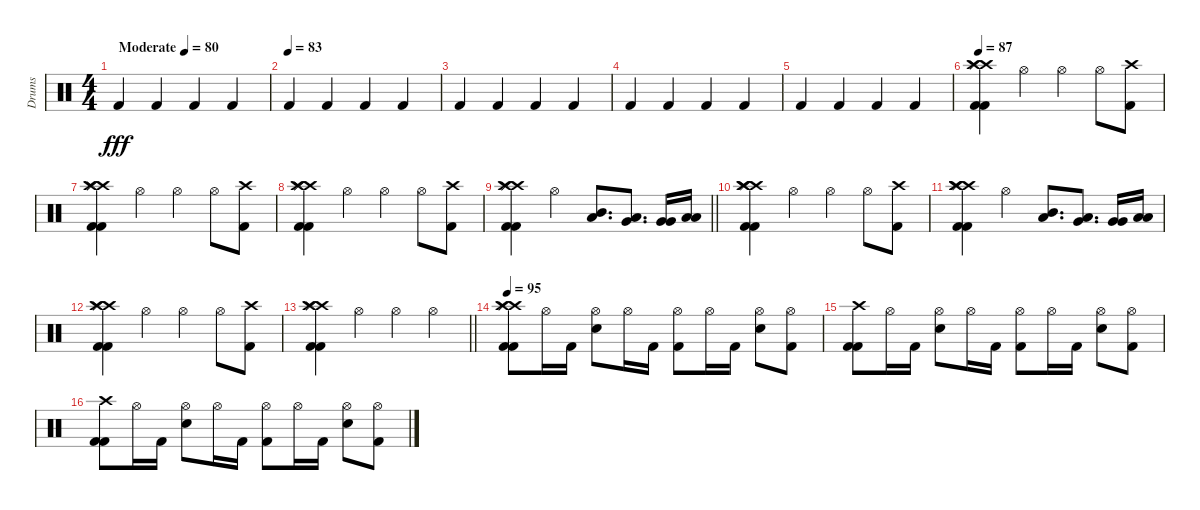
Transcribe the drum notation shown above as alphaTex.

\track ("Drums" "Drums") {instrument percussion}
\staff {score}
\articulation defaults
\ts (4 4)
\section ("" "")
\tempo (80 "Moderate")
\clef neutral
\ks c "Kick (hit) 2".4{dy fff} "Kick (hit) 2".4 "Kick (hit) 2".4 "Kick (hit) 2".4
|
\tempo (83)
"Kick (hit) 2".4 "Kick (hit) 2".4 "Kick (hit) 2".4 "Kick (hit) 2".4 |
"Kick (hit) 2".4 "Kick (hit) 2".4 "Kick (hit) 2".4 "Kick (hit) 2".4 |
"Kick (hit) 2".4 "Kick (hit) 2".4 "Kick (hit) 2".4 "Kick (hit) 2".4 |
"Kick (hit) 2".4 "Kick (hit) 2".4 "Kick (hit) 2".4 "Kick (hit) 2".4 |
\tempo 87
("Crash high (hit)" "Crash high (hit)" "Splash (hit)" "Splash (hit)" "Kick (hit) 2" "Kick (hit) 2").4 "Hi-Hat (open)".4 "Hi-Hat (open)".4 "Hi-Hat (open)".8 ("Crash high (hit)" "Kick (hit) 2").8 |
("Crash high (hit)" "Crash high (hit)" "Splash (hit)" "Splash (hit)" "Kick (hit) 2" "Kick (hit) 2").4 "Hi-Hat (open)".4 "Hi-Hat (open)".4 "Hi-Hat (open)".8 ("Crash high (hit)" "Kick (hit) 2").8 |
("Crash high (hit)" "Crash high (hit)" "Splash (hit)" "Splash (hit)" "Kick (hit) 2" "Kick (hit) 2").4 "Hi-Hat (open)".4 "Hi-Hat (open)".4 "Hi-Hat (open)".8 ("Crash high (hit)" "Kick (hit) 2").8 |
\barLineRight lightlight
("Crash high (hit)" "Crash high (hit)" "Splash (hit)" "Splash (hit)" "Kick (hit) 2" "Kick (hit) 2").4 "Hi-Hat (open)".4 ("Low Tom (hit)" "Mid Tom (hit)").8{d} ("Very Low Tom (hit)" "Low Tom (hit)").8{d} ("Very Low Tom (hit)" "Very Low Tom (hit)").16 ("Low Floor Tom (hit)" "Low Floor Tom (hit)").16 |
\section ("" "")
("Crash high (hit)" "Crash high (hit)" "Splash (hit)" "Crash high (hit)" "Kick (hit) 2" "Kick (hit) 2").4 "Hi-Hat (open)".4 "Hi-Hat (open)".4 "Hi-Hat (open)".8 ("Crash high (hit)" "Kick (hit) 2").8 |
("Crash high (hit)" "Crash high (hit)" "Crash high (hit)" "Splash (hit)" "Kick (hit) 2" "Kick (hit) 2").4 "Hi-Hat (open)".4 ("Low Tom (hit)" "Mid Tom (hit)").8{d} ("Very Low Tom (hit)" "Low Tom (hit)").8{d} ("Very Low Tom (hit)" "Very Low Tom (hit)").16 ("Low Floor Tom (hit)" "Low Floor Tom (hit)").16 |
("Crash high (hit)" "Crash high (hit)" "Splash (hit)" "Splash (hit)" "Kick (hit) 2" "Kick (hit) 2").4 "Hi-Hat (open)".4 "Hi-Hat (open)".4 "Hi-Hat (open)".8 ("Crash high (hit)" "Kick (hit) 2").8 |
\barLineRight lightlight
("Crash high (hit)" "Crash high (hit)" "Splash (hit)" "Splash (hit)" "Kick (hit) 2" "Kick (hit) 2").4 "Hi-Hat (open)".4 "Hi-Hat (open)".4 "Hi-Hat (open)".4 |
\section ("" "")
\tempo 95
("Crash high (hit)" "Crash high (hit)" "Splash (hit)" "Splash (hit)" "Kick (hit) 2" "Kick (hit) 2").8 "Hi-Hat (open)".16 "Kick (hit) 2".16 ("Hi-Hat (open)" "Electric Snare (hit)").8 "Hi-Hat (open)".16 "Kick (hit) 2".16 ("Hi-Hat (open)" "Kick (hit) 2").8 "Hi-Hat (open)".16 "Kick (hit) 2".16 ("Hi-Hat (open)" "Electric Snare (hit)").8 ("Hi-Hat (open)" "Kick (hit) 2").8 |
("Crash high (hit)" "Kick (hit) 2" "Kick (hit) 2").8 "Hi-Hat (open)".16 "Kick (hit) 2".16 ("Hi-Hat (open)" "Electric Snare (hit)").8 "Hi-Hat (open)".16 "Kick (hit) 2".16 ("Hi-Hat (open)" "Kick (hit) 2").8 "Hi-Hat (open)".16 "Kick (hit) 2".16 ("Hi-Hat (open)" "Electric Snare (hit)").8 ("Hi-Hat (open)" "Kick (hit) 2").8 |
("Crash high (hit)" "Kick (hit) 2" "Kick (hit) 2").8 "Hi-Hat (open)".16 "Kick (hit) 2".16 ("Hi-Hat (open)" "Electric Snare (hit)").8 "Hi-Hat (open)".16 "Kick (hit) 2".16 ("Hi-Hat (open)" "Kick (hit) 2").8 "Hi-Hat (open)".16 "Kick (hit) 2".16 ("Hi-Hat (open)" "Electric Snare (hit)").8 ("Hi-Hat (open)" "Kick (hit) 2").8
